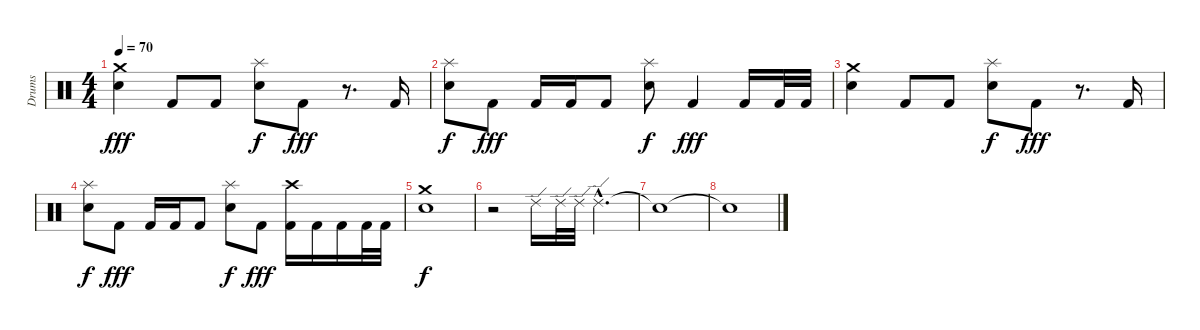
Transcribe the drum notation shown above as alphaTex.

\track ("Drums" "Drums") {instrument percussion}
\staff {score}
\articulation defaults
\ts (4 4)
\tempo 70
\clef neutral
\ks c
("Electric Snare (hit)" "Crash medium (hit)").4{dy fff} "Kick (hit) 2".8 "Kick (hit) 2".8 ("Electric Snare (hit)" "Splash (hit)").8{dy f} "Kick (hit) 2".8{dy fff} r.8{d} "Kick (hit) 2".16 |
("Splash (hit)" "Electric Snare (hit)").8{dy f} "Kick (hit) 2".8{dy fff} "Kick (hit) 2".16 "Kick (hit) 2".16 "Kick (hit) 2".8 ("Splash (hit)" "Electric Snare (hit)").8{dy f} "Kick (hit) 2".4{dy fff} "Kick (hit) 2".16 "Kick (hit) 2".32 "Kick (hit) 2".32 |
("Electric Snare (hit)" "Crash medium (hit)").4 "Kick (hit) 2".8 "Kick (hit) 2".8 ("Electric Snare (hit)" "Splash (hit)").8{dy f} "Kick (hit) 2".8{dy fff} r.8{d} "Kick (hit) 2".16 |
("Splash (hit)" "Electric Snare (hit)").8{dy f} "Kick (hit) 2".8{dy fff} "Kick (hit) 2".16 "Kick (hit) 2".16 "Kick (hit) 2".8 ("Splash (hit)" "Electric Snare (hit)").8{dy f} "Kick (hit) 2".8{dy fff} ("Crash high (hit)" "Kick (hit) 2").16 "Kick (hit) 2".16 "Kick (hit) 2".16 "Kick (hit) 2".32 "Kick (hit) 2".32 |
("Crash medium (hit)" "Electric Snare (hit)").1{dy f} |
r.2 "Ride (edge) 2".16 "Ride (edge) 2".32 "Ride (edge) 2".32 "Ride (edge) 2"{hac}.4{d} |
"Snare (hit)"{t}.1 |
"Snare (hit)"{t}.1
